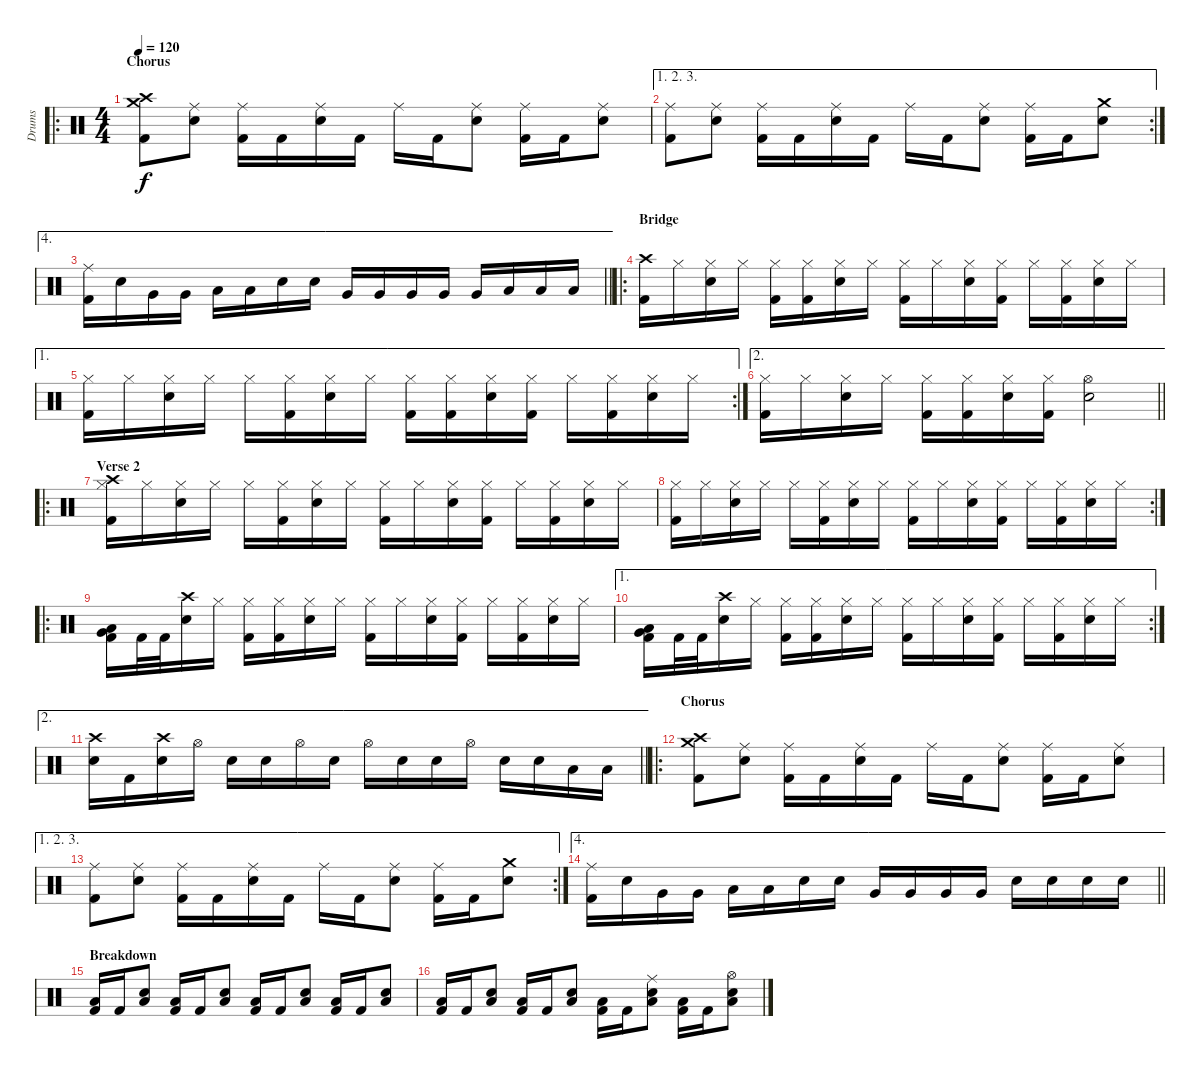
\track ("Drums" "Drums") {instrument percussion}
\staff {score}
\articulation defaults
\ro
\ts (4 4)
\section ("" "Chorus")
\tempo 120
\clef neutral
\ks c
("Crash high (hit)" "Crash medium (hit)" "Kick (hit) 2").8{dy f} ("Ride (middle)" "Snare (hit) 2").8 ("Ride (middle)" "Kick (hit) 2").16 "Kick (hit) 2".16 ("Ride (middle)" "Snare (hit) 2").16 "Kick (hit) 2".16 "Ride (middle)".16 "Kick (hit) 2".16 ("Ride (middle)" "Snare (hit) 2").8 ("Ride (middle)" "Kick (hit) 2").16 "Kick (hit) 2".16 ("Ride (middle)" "Snare (hit) 2").8 |
\ae (1 2 3)
\rc 2
("Ride (middle)" "Kick (hit) 2").8 ("Ride (middle)" "Snare (hit) 2").8 ("Ride (middle)" "Kick (hit) 2").16 "Kick (hit) 2".16 ("Ride (middle)" "Snare (hit) 2").16 "Kick (hit) 2".16 "Ride (middle)".16 "Kick (hit) 2".16 ("Ride (middle)" "Snare (hit) 2").8 ("Ride (middle)" "Kick (hit) 2").16 "Kick (hit) 2".16 ("Crash medium (hit)" "Snare (hit) 2").8 |
\ae 4
\barLineRight lightlight
("Ride (middle)" "Kick (hit) 2").16 "Snare (hit) 2".16 "Very Low Tom (hit)".16 "Very Low Tom (hit)".16 "Low Floor Tom (hit)".16 "Low Floor Tom (hit)".16 "Snare (hit) 2".16 "Snare (hit) 2".16 "Very Low Tom (hit)".16 "Very Low Tom (hit)".16 "Very Low Tom (hit)".16 "Very Low Tom (hit)".16 "Very Low Tom (hit)".16 "Low Floor Tom (hit)".16 "Low Floor Tom (hit)".16 "Low Floor Tom (hit)".16 |
\ro
\section ("" "Bridge")
("Crash high (hit)" "Kick (hit) 2").16 "Hi-Hat (closed)".16 ("Hi-Hat (closed)" "Snare (hit) 2").16 "Hi-Hat (closed)".16 ("Hi-Hat (closed)" "Kick (hit) 2").16 ("Hi-Hat (closed)" "Kick (hit) 2").16 ("Hi-Hat (closed)" "Snare (hit) 2").16 "Hi-Hat (closed)".16 ("Hi-Hat (closed)" "Kick (hit) 2").16 "Hi-Hat (closed)".16 ("Hi-Hat (closed)" "Snare (hit) 2").16 ("Hi-Hat (closed)" "Kick (hit) 2").16 "Hi-Hat (closed)".16 ("Hi-Hat (closed)" "Kick (hit) 2").16 ("Hi-Hat (closed)" "Snare (hit) 2").16 "Hi-Hat (closed)".16 |
\ae 1
\rc 2
("Hi-Hat (closed)" "Kick (hit) 2").16 "Hi-Hat (closed)".16 ("Hi-Hat (closed)" "Snare (hit) 2").16 "Hi-Hat (closed)".16 "Hi-Hat (closed)".16 ("Hi-Hat (closed)" "Kick (hit) 2").16 ("Hi-Hat (closed)" "Snare (hit) 2").16 "Hi-Hat (closed)".16 ("Hi-Hat (closed)" "Kick (hit) 2").16 ("Hi-Hat (closed)" "Kick (hit) 2").16 ("Hi-Hat (closed)" "Snare (hit) 2").16 ("Hi-Hat (closed)" "Kick (hit) 2").16 "Hi-Hat (closed)".16 ("Hi-Hat (closed)" "Kick (hit) 2").16 ("Hi-Hat (closed)" "Snare (hit) 2").16 "Hi-Hat (closed)".16 |
\ae 2
\barLineRight lightlight
("Hi-Hat (closed)" "Kick (hit) 2").16 "Hi-Hat (closed)".16 ("Hi-Hat (closed)" "Snare (hit) 2").16 "Hi-Hat (closed)".16 ("Hi-Hat (closed)" "Kick (hit) 2").16 ("Hi-Hat (closed)" "Kick (hit) 2").16 ("Hi-Hat (closed)" "Snare (hit) 2").16 ("Hi-Hat (closed)" "Kick (hit) 2").16 ("Hi-Hat (open)" "Snare (hit) 2").2 |
\ro
\section ("" "Verse 2")
("Crash high (hit)" "Hi-Hat (closed)" "Kick (hit) 2").16 "Hi-Hat (closed)".16 ("Hi-Hat (closed)" "Snare (hit) 2").16 "Hi-Hat (closed)".16 "Hi-Hat (closed)".16 ("Hi-Hat (closed)" "Kick (hit) 2").16 ("Hi-Hat (closed)" "Snare (hit) 2").16 "Hi-Hat (closed)".16 ("Hi-Hat (closed)" "Kick (hit) 2").16 "Hi-Hat (closed)".16 ("Hi-Hat (closed)" "Snare (hit) 2").16 ("Hi-Hat (closed)" "Kick (hit) 2").16 "Hi-Hat (closed)".16 ("Hi-Hat (closed)" "Kick (hit) 2").16 ("Hi-Hat (closed)" "Snare (hit) 2").16 "Hi-Hat (closed)".16 |
\rc 2
("Hi-Hat (closed)" "Kick (hit) 2").16 "Hi-Hat (closed)".16 ("Hi-Hat (closed)" "Snare (hit) 2").16 "Hi-Hat (closed)".16 "Hi-Hat (closed)".16 ("Hi-Hat (closed)" "Kick (hit) 2").16 ("Hi-Hat (closed)" "Snare (hit) 2").16 "Hi-Hat (closed)".16 ("Hi-Hat (closed)" "Kick (hit) 2").16 "Hi-Hat (closed)".16 ("Hi-Hat (closed)" "Snare (hit) 2").16 ("Hi-Hat (closed)" "Kick (hit) 2").16 "Hi-Hat (closed)".16 ("Hi-Hat (closed)" "Kick (hit) 2").16 ("Hi-Hat (closed)" "Snare (hit) 2").16 "Hi-Hat (closed)".16 |
\ro
("Very Low Tom (hit)" "Low Floor Tom (hit)" "Kick (hit) 2").16 "Kick (hit) 2".32 "Kick (hit) 2".32 ("Crash high (hit)" "Snare (hit) 2").16 "Hi-Hat (closed)".16 ("Hi-Hat (closed)" "Kick (hit) 2").16 ("Hi-Hat (closed)" "Kick (hit) 2").16 ("Hi-Hat (closed)" "Snare (hit) 2").16 "Hi-Hat (closed)".16 ("Hi-Hat (closed)" "Kick (hit) 2").16 "Hi-Hat (closed)".16 ("Hi-Hat (closed)" "Snare (hit) 2").16 ("Hi-Hat (closed)" "Kick (hit) 2").16 "Hi-Hat (closed)".16 ("Hi-Hat (closed)" "Kick (hit) 2").16 ("Hi-Hat (closed)" "Snare (hit) 2").16 "Hi-Hat (closed)".16 |
\ae 1
\rc 2
("Very Low Tom (hit)" "Low Floor Tom (hit)" "Kick (hit) 2").16 "Kick (hit) 2".32 "Kick (hit) 2".32 ("Crash high (hit)" "Snare (hit) 2").16 "Hi-Hat (closed)".16 ("Hi-Hat (closed)" "Kick (hit) 2").16 ("Hi-Hat (closed)" "Kick (hit) 2").16 ("Hi-Hat (closed)" "Snare (hit) 2").16 "Hi-Hat (closed)".16 ("Hi-Hat (closed)" "Kick (hit) 2").16 "Hi-Hat (closed)".16 ("Hi-Hat (closed)" "Snare (hit) 2").16 ("Hi-Hat (closed)" "Kick (hit) 2").16 "Hi-Hat (closed)".16 ("Hi-Hat (closed)" "Kick (hit) 2").16 ("Hi-Hat (closed)" "Snare (hit) 2").16 "Hi-Hat (closed)".16 |
\ae 2
\barLineRight lightlight
("Crash high (hit)" "Snare (hit) 2").16 "Kick (hit) 2".16 ("Crash high (hit)" "Snare (hit) 2").16 "Hi-Hat (open)".16 "Snare (hit) 2".16 "Snare (hit) 2".16 "Hi-Hat (open)".16 "Snare (hit) 2".16 "Hi-Hat (open)".16 "Snare (hit) 2".16 "Snare (hit) 2".16 "Hi-Hat (open)".16 "Snare (hit) 2".16 "Snare (hit) 2".16 "Low Floor Tom (hit)".16 "Low Floor Tom (hit)".16 |
\ro
\section ("" "Chorus")
("Crash high (hit)" "Crash medium (hit)" "Kick (hit) 2").8 ("Ride (middle)" "Snare (hit) 2").8 ("Ride (middle)" "Kick (hit) 2").16 "Kick (hit) 2".16 ("Ride (middle)" "Snare (hit) 2").16 "Kick (hit) 2".16 "Ride (middle)".16 "Kick (hit) 2".16 ("Ride (middle)" "Snare (hit) 2").8 ("Ride (middle)" "Kick (hit) 2").16 "Kick (hit) 2".16 ("Ride (middle)" "Snare (hit) 2").8 |
\ae (1 2 3)
\rc 2
("Ride (middle)" "Kick (hit) 2").8 ("Ride (middle)" "Snare (hit) 2").8 ("Ride (middle)" "Kick (hit) 2").16 "Kick (hit) 2".16 ("Ride (middle)" "Snare (hit) 2").16 "Kick (hit) 2".16 "Ride (middle)".16 "Kick (hit) 2".16 ("Ride (middle)" "Snare (hit) 2").8 ("Ride (middle)" "Kick (hit) 2").16 "Kick (hit) 2".16 ("Crash medium (hit)" "Snare (hit) 2").8 |
\ae 4
\barLineRight lightlight
("Ride (middle)" "Kick (hit) 2").16 "Snare (hit) 2".16 "Very Low Tom (hit)".16 "Very Low Tom (hit)".16 "Low Floor Tom (hit)".16 "Low Floor Tom (hit)".16 "Snare (hit) 2".16 "Snare (hit) 2".16 "Very Low Tom (hit)".16 "Very Low Tom (hit)".16 "Very Low Tom (hit)".16 "Very Low Tom (hit)".16 "Snare (hit) 2".16 "Snare (hit) 2".16 "Snare (hit) 2".16 "Snare (hit) 2".16 |
\section ("" "Breakdown")
("Low Floor Tom (hit)" "Kick (hit) 2").16 "Kick (hit) 2".16 ("Low Floor Tom (hit)" "Snare (hit) 2").8 ("Low Floor Tom (hit)" "Kick (hit) 2").16 "Kick (hit) 2".16 ("Low Floor Tom (hit)" "Snare (hit) 2").8 ("Low Floor Tom (hit)" "Kick (hit) 2").16 "Kick (hit) 2".16 ("Low Floor Tom (hit)" "Snare (hit) 2").8 ("Low Floor Tom (hit)" "Kick (hit) 2").16 "Kick (hit) 2".16 ("Low Floor Tom (hit)" "Snare (hit) 2").8 |
("Low Floor Tom (hit)" "Kick (hit) 2").16 "Kick (hit) 2".16 ("Low Floor Tom (hit)" "Snare (hit) 2").8 ("Low Floor Tom (hit)" "Kick (hit) 2").16 "Kick (hit) 2".16 ("Low Floor Tom (hit)" "Snare (hit) 2").8 ("Low Floor Tom (hit)" "Kick (hit) 2").16 "Kick (hit) 2".16 ("Ride (middle)" "Low Floor Tom (hit)" "Snare (hit) 2").8 ("Low Floor Tom (hit)" "Kick (hit) 2").16 "Kick (hit) 2".16 ("Hi-Hat (open)" "Low Floor Tom (hit)" "Snare (hit) 2").8
